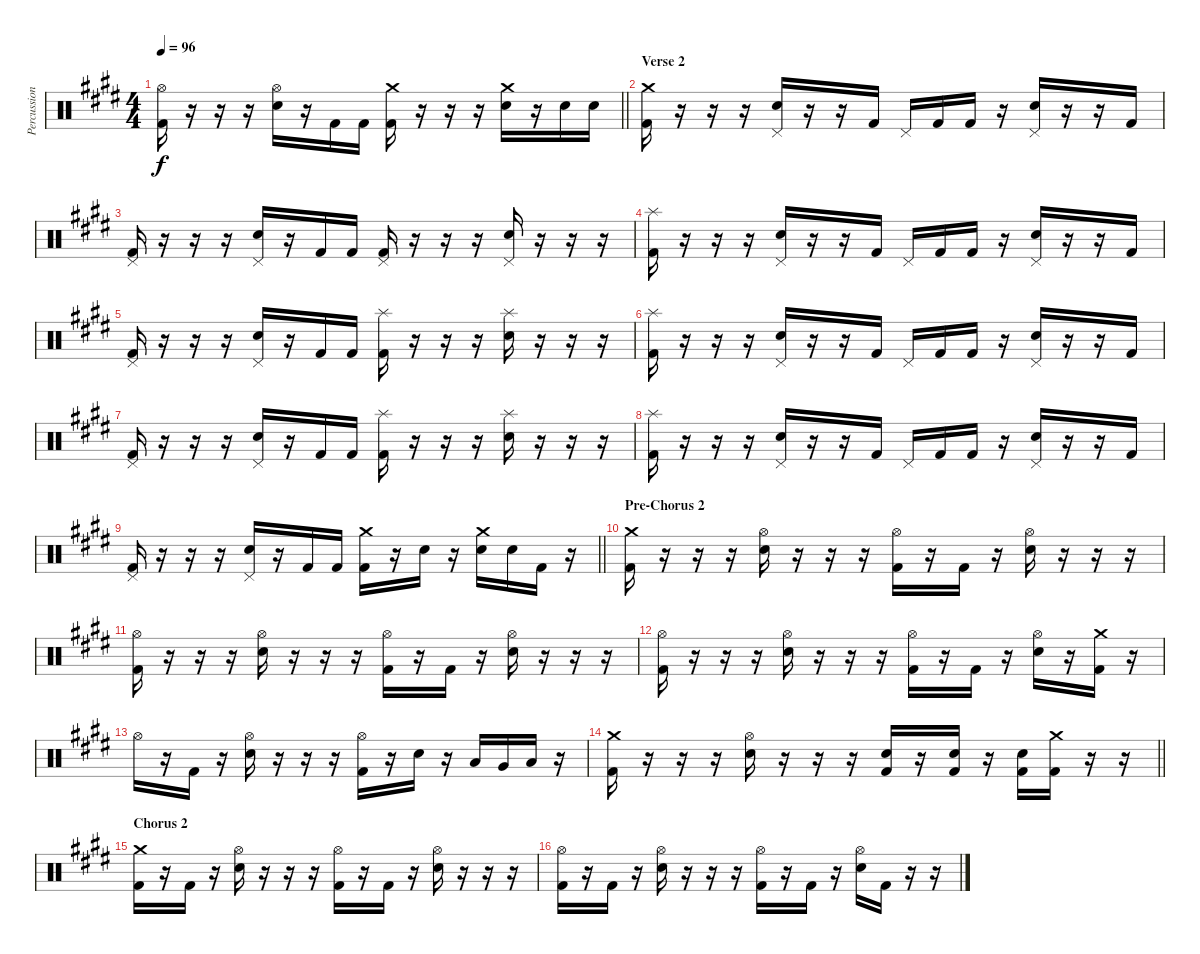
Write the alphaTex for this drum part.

\track ("Percussioni" "Percussion") {instrument percussion}
\staff {score}
\articulation defaults
\ts (4 4)
\tempo 96
\clef neutral
\barLineRight lightlight
\ks c#minor
("Kick (hit) 2" "Hi-Hat (open)").16{dy f} r.16 r.16 r.16 ("Electric Snare (hit)" "Hi-Hat (open)").16 r.16 "Kick (hit) 2".16 "Kick (hit) 2".16 ("Kick (hit) 2" "Crash medium (hit)").16 r.16 r.16 r.16 ("Electric Snare (hit)" "Crash medium (hit)").16 r.16 "Electric Snare (hit)".16 "Electric Snare (hit)".16 |
\section ("" "Verse 2")
("Kick (hit) 2" "Crash medium (hit)").16 r.16 r.16 r.16 ("Electric Snare (hit)" "Pedal Hi-Hat (hit)").16 r.16 r.16 "Kick (hit) 2".16 "Pedal Hi-Hat (hit)".16 "Kick (hit) 2".16 "Kick (hit) 2".16 r.16 ("Electric Snare (hit)" "Pedal Hi-Hat (hit)").16 r.16 r.16 "Kick (hit) 2".16 |
("Kick (hit) 2" "Pedal Hi-Hat (hit)").16 r.16 r.16 r.16 ("Electric Snare (hit)" "Pedal Hi-Hat (hit)").16 r.16 "Kick (hit) 2".16 "Kick (hit) 2".16 ("Kick (hit) 2" "Pedal Hi-Hat (hit)").16 r.16 r.16 r.16 ("Electric Snare (hit)" "Pedal Hi-Hat (hit)").16 r.16 r.16 r.16 |
("Kick (hit) 2" "Splash (hit)").16 r.16 r.16 r.16 ("Electric Snare (hit)" "Pedal Hi-Hat (hit)").16 r.16 r.16 "Kick (hit) 2".16 "Pedal Hi-Hat (hit)".16 "Kick (hit) 2".16 "Kick (hit) 2".16 r.16 ("Electric Snare (hit)" "Pedal Hi-Hat (hit)").16 r.16 r.16 "Kick (hit) 2".16 |
("Kick (hit) 2" "Pedal Hi-Hat (hit)").16 r.16 r.16 r.16 ("Electric Snare (hit)" "Pedal Hi-Hat (hit)").16 r.16 "Kick (hit) 2".16 "Kick (hit) 2".16 ("Kick (hit) 2" "Splash (hit)").16 r.16 r.16 r.16 ("Electric Snare (hit)" "Splash (hit)").16 r.16 r.16 r.16 |
("Kick (hit) 2" "Splash (hit)").16 r.16 r.16 r.16 ("Electric Snare (hit)" "Pedal Hi-Hat (hit)").16 r.16 r.16 "Kick (hit) 2".16 "Pedal Hi-Hat (hit)".16 "Kick (hit) 2".16 "Kick (hit) 2".16 r.16 ("Electric Snare (hit)" "Pedal Hi-Hat (hit)").16 r.16 r.16 "Kick (hit) 2".16 |
("Kick (hit) 2" "Pedal Hi-Hat (hit)").16 r.16 r.16 r.16 ("Electric Snare (hit)" "Pedal Hi-Hat (hit)").16 r.16 "Kick (hit) 2".16 "Kick (hit) 2".16 ("Kick (hit) 2" "Splash (hit)").16 r.16 r.16 r.16 ("Electric Snare (hit)" "Splash (hit)").16 r.16 r.16 r.16 |
("Kick (hit) 2" "Splash (hit)").16 r.16 r.16 r.16 ("Electric Snare (hit)" "Pedal Hi-Hat (hit)").16 r.16 r.16 "Kick (hit) 2".16 "Pedal Hi-Hat (hit)".16 "Kick (hit) 2".16 "Kick (hit) 2".16 r.16 ("Electric Snare (hit)" "Pedal Hi-Hat (hit)").16 r.16 r.16 "Kick (hit) 2".16 |
\barLineRight lightlight
("Kick (hit) 2" "Pedal Hi-Hat (hit)").16 r.16 r.16 r.16 ("Electric Snare (hit)" "Pedal Hi-Hat (hit)").16 r.16 "Kick (hit) 2".16 "Kick (hit) 2".16 ("Kick (hit) 2" "Crash medium (hit)").16 r.16 "Electric Snare (hit)".16 r.16 ("Electric Snare (hit)" "Crash medium (hit)").16 "Electric Snare (hit)".16 "Kick (hit) 2".16 r.16 |
\section ("" "Pre-Chorus 2")
("Kick (hit) 2" "Crash medium (hit)").16 r.16 r.16 r.16 ("Electric Snare (hit)" "Hi-Hat (open)").16 r.16 r.16 r.16 ("Kick (hit) 2" "Hi-Hat (open)").16 r.16 "Kick (hit) 2".16 r.16 ("Electric Snare (hit)" "Hi-Hat (open)").16 r.16 r.16 r.16 |
("Kick (hit) 2" "Hi-Hat (open)").16 r.16 r.16 r.16 ("Electric Snare (hit)" "Hi-Hat (open)").16 r.16 r.16 r.16 ("Kick (hit) 2" "Hi-Hat (open)").16 r.16 "Kick (hit) 2".16 r.16 ("Electric Snare (hit)" "Hi-Hat (open)").16 r.16 r.16 r.16 |
("Kick (hit) 2" "Hi-Hat (open)").16 r.16 r.16 r.16 ("Electric Snare (hit)" "Hi-Hat (open)").16 r.16 r.16 r.16 ("Kick (hit) 2" "Hi-Hat (open)").16 r.16 "Kick (hit) 2".16 r.16 ("Electric Snare (hit)" "Hi-Hat (open)").16 r.16 ("Kick (hit) 2" "Crash medium (hit)").16 r.16 |
"Hi-Hat (open)".16 r.16 "Kick (hit) 2".16 r.16 ("Electric Snare (hit)" "Hi-Hat (open)").16 r.16 r.16 r.16 ("Kick (hit) 2" "Hi-Hat (open)").16 r.16 "Electric Snare (hit)".16 r.16 "Low Tom (hit)".16 "Very Low Tom (hit)".16 "Low Floor Tom (hit)".16 r.16 |
\barLineRight lightlight
\ks e
("Kick (hit) 2" "Crash medium (hit)").16 r.16 r.16 r.16 ("Electric Snare (hit)" "Hi-Hat (open)").16 r.16 r.16 r.16 ("Kick (hit) 2" "Electric Snare (hit)").16 r.16 ("Electric Snare (hit)" "Kick (hit) 2").16 r.16 ("Electric Snare (hit)" "Kick (hit) 2").16 ("Kick (hit) 2" "Crash medium (hit)").16 r.16 r.16 |
\section ("" "Chorus 2")
\ks c#minor
("Kick (hit) 2" "Crash medium (hit)").16 r.16 "Kick (hit) 2".16 r.16 ("Electric Snare (hit)" "Hi-Hat (open)").16 r.16 r.16 r.16 ("Kick (hit) 2" "Hi-Hat (open)").16 r.16 "Kick (hit) 2".16 r.16 ("Electric Snare (hit)" "Hi-Hat (open)").16 r.16 r.16 r.16 |
("Kick (hit) 2" "Hi-Hat (open)").16 r.16 "Kick (hit) 2".16 r.16 ("Electric Snare (hit)" "Hi-Hat (open)").16 r.16 r.16 r.16 ("Kick (hit) 2" "Hi-Hat (open)").16 r.16 "Kick (hit) 2".16 r.16 ("Electric Snare (hit)" "Hi-Hat (open)").16 "Kick (hit) 2".16 r.16 r.16
